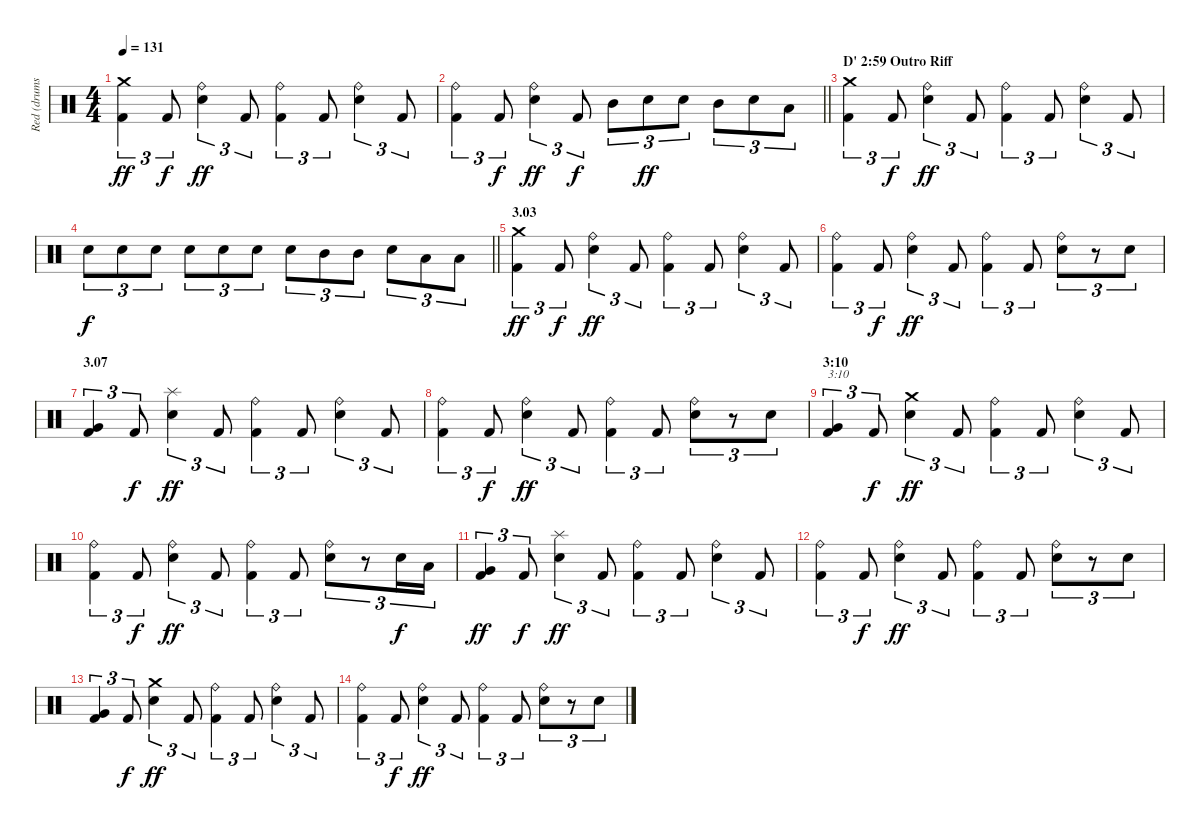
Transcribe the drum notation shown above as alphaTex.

\track ("Red (drums)" "Red (drums") {instrument percussion}
\staff {score}
\articulation defaults
\ts (4 4)
\tempo 131
\clef neutral
\ks c
("Crash medium (hit)" "Kick (hit) 2").4{tu (3 2) dy ff} "Kick (hit) 2".8{tu (3 2) dy f} ("Ride (bell)" "Electric Snare (hit)").4{tu (3 2) dy ff} "Kick (hit) 2".8{tu (3 2)} ("Ride (bell)" "Kick (hit) 2").4{tu (3 2)} "Kick (hit) 2".8{tu (3 2)} ("Ride (bell)" "Electric Snare (hit)").4{tu (3 2)} "Kick (hit) 2".8{tu (3 2)} |
\barLineRight lightlight
("Ride (bell)" "Kick (hit) 2").4{tu (3 2)} "Kick (hit) 2".8{tu (3 2) dy f} ("Ride (bell)" "Electric Snare (hit)").4{tu (3 2) dy ff} "Kick (hit) 2".8{tu (3 2) dy f} "Mid Tom (hit)".8{tu (3 2)} "Electric Snare (hit)".8{tu (3 2) dy ff} "Electric Snare (hit)".8{tu (3 2)} "Mid Tom (hit)".8{tu (3 2)} "Electric Snare (hit)".8{tu (3 2)} "Low Tom (hit)".8{tu (3 2)} |
\section ("" "D' 2:59 Outro Riff")
("Crash medium (hit)" "Kick (hit) 2").4{tu (3 2)} "Kick (hit) 2".8{tu (3 2) dy f} ("Ride (bell)" "Electric Snare (hit)").4{tu (3 2) dy ff} "Kick (hit) 2".8{tu (3 2)} ("Ride (bell)" "Kick (hit) 2").4{tu (3 2)} "Kick (hit) 2".8{tu (3 2)} ("Ride (bell)" "Electric Snare (hit)").4{tu (3 2)} "Kick (hit) 2".8{tu (3 2)} |
\barLineRight lightlight "Electric Snare (hit)".8{tu (3 2) dy f} "Electric Snare (hit)".8{tu (3 2)} "Electric Snare (hit)".8{tu (3 2)} "Electric Snare (hit)".8{tu (3 2)} "Electric Snare (hit)".8{tu (3 2)} "Electric Snare (hit)".8{tu (3 2)} "Electric Snare (hit)".8{tu (3 2)} "Mid Tom (hit)".8{tu (3 2)} "Mid Tom (hit)".8{tu (3 2)} "Electric Snare (hit)".8{tu (3 2)} "Low Tom (hit)".8{tu (3 2)} "Low Tom (hit)".8{tu (3 2)}
|
\section ("" "3.03")
("Crash medium (hit)" "Kick (hit) 2").4{tu (3 2) dy ff} "Kick (hit) 2".8{tu (3 2) dy f} ("Ride (bell)" "Electric Snare (hit)").4{tu (3 2) dy ff} "Kick (hit) 2".8{tu (3 2)} ("Ride (bell)" "Kick (hit) 2").4{tu (3 2)} "Kick (hit) 2".8{tu (3 2)} ("Ride (bell)" "Electric Snare (hit)").4{tu (3 2)} "Kick (hit) 2".8{tu (3 2)} |
("Ride (bell)" "Kick (hit) 2").4{tu (3 2)} "Kick (hit) 2".8{tu (3 2) dy f} ("Ride (bell)" "Electric Snare (hit)").4{tu (3 2) dy ff} "Kick (hit) 2".8{tu (3 2)} ("Ride (bell)" "Kick (hit) 2").4{tu (3 2)} "Kick (hit) 2".8{tu (3 2)} ("Ride (bell)" "Electric Snare (hit)").8{tu (3 2)} r.8{tu (3 2)} "Electric Snare (hit)".8{tu (3 2)} |
\section ("" "3.07")
("Very Low Tom (hit)" "Kick (hit) 2").4{tu (3 2)} "Kick (hit) 2".8{tu (3 2) dy f} ("Splash (hit)" "Electric Snare (hit)").4{tu (3 2) dy ff} "Kick (hit) 2".8{tu (3 2)} ("Ride (bell)" "Kick (hit) 2").4{tu (3 2)} "Kick (hit) 2".8{tu (3 2)} ("Ride (bell)" "Electric Snare (hit)").4{tu (3 2)} "Kick (hit) 2".8{tu (3 2)} |
("Ride (bell)" "Kick (hit) 2").4{tu (3 2)} "Kick (hit) 2".8{tu (3 2) dy f} ("Ride (bell)" "Electric Snare (hit)").4{tu (3 2) dy ff} "Kick (hit) 2".8{tu (3 2)} ("Ride (bell)" "Kick (hit) 2").4{tu (3 2)} "Kick (hit) 2".8{tu (3 2)} ("Ride (bell)" "Electric Snare (hit)").8{tu (3 2)} r.8{tu (3 2)} "Electric Snare (hit)".8{tu (3 2)} |
\section ("" "3:10")
("Very Low Tom (hit)" "Kick (hit) 2").4{tu (3 2) txt "3:10"} "Kick (hit) 2".8{tu (3 2) dy f} ("Crash medium (hit)" "Electric Snare (hit)").4{tu (3 2) dy ff} "Kick (hit) 2".8{tu (3 2)} ("Ride (bell)" "Kick (hit) 2").4{tu (3 2)} "Kick (hit) 2".8{tu (3 2)} ("Ride (bell)" "Electric Snare (hit)").4{tu (3 2)} "Kick (hit) 2".8{tu (3 2)} |
("Ride (bell)" "Kick (hit) 2").4{tu (3 2)} "Kick (hit) 2".8{tu (3 2) dy f} ("Ride (bell)" "Electric Snare (hit)").4{tu (3 2) dy ff} "Kick (hit) 2".8{tu (3 2)} ("Ride (bell)" "Kick (hit) 2").4{tu (3 2)} "Kick (hit) 2".8{tu (3 2)} ("Ride (bell)" "Electric Snare (hit)").8{tu (3 2)} r.8{tu (3 2)} "Electric Snare (hit)".16{tu (3 2) dy f} "Low Tom (hit)".16{tu (3 2)} |
("Very Low Tom (hit)" "Kick (hit) 2").4{tu (3 2) dy ff} "Kick (hit) 2".8{tu (3 2) dy f} ("Splash (hit)" "Electric Snare (hit)").4{tu (3 2) dy ff} "Kick (hit) 2".8{tu (3 2)} ("Ride (bell)" "Kick (hit) 2").4{tu (3 2)} "Kick (hit) 2".8{tu (3 2)} ("Ride (bell)" "Electric Snare (hit)").4{tu (3 2)} "Kick (hit) 2".8{tu (3 2)} |
("Ride (bell)" "Kick (hit) 2").4{tu (3 2)} "Kick (hit) 2".8{tu (3 2) dy f} ("Ride (bell)" "Electric Snare (hit)").4{tu (3 2) dy ff} "Kick (hit) 2".8{tu (3 2)} ("Ride (bell)" "Kick (hit) 2").4{tu (3 2)} "Kick (hit) 2".8{tu (3 2)} ("Ride (bell)" "Electric Snare (hit)").8{tu (3 2)} r.8{tu (3 2)} "Electric Snare (hit)".8{tu (3 2)} |
("Very Low Tom (hit)" "Kick (hit) 2").4{tu (3 2)} "Kick (hit) 2".8{tu (3 2) dy f} ("Crash medium (hit)" "Electric Snare (hit)").4{tu (3 2) dy ff} "Kick (hit) 2".8{tu (3 2)} ("Ride (bell)" "Kick (hit) 2").4{tu (3 2)} "Kick (hit) 2".8{tu (3 2)} ("Ride (bell)" "Electric Snare (hit)").4{tu (3 2)} "Kick (hit) 2".8{tu (3 2)} |
("Ride (bell)" "Kick (hit) 2").4{tu (3 2)} "Kick (hit) 2".8{tu (3 2) dy f} ("Ride (bell)" "Electric Snare (hit)").4{tu (3 2) dy ff} "Kick (hit) 2".8{tu (3 2)} ("Ride (bell)" "Kick (hit) 2").4{tu (3 2)} "Kick (hit) 2".8{tu (3 2)} ("Ride (bell)" "Electric Snare (hit)").8{tu (3 2)} r.8{tu (3 2)} "Electric Snare (hit)".8{tu (3 2)}
